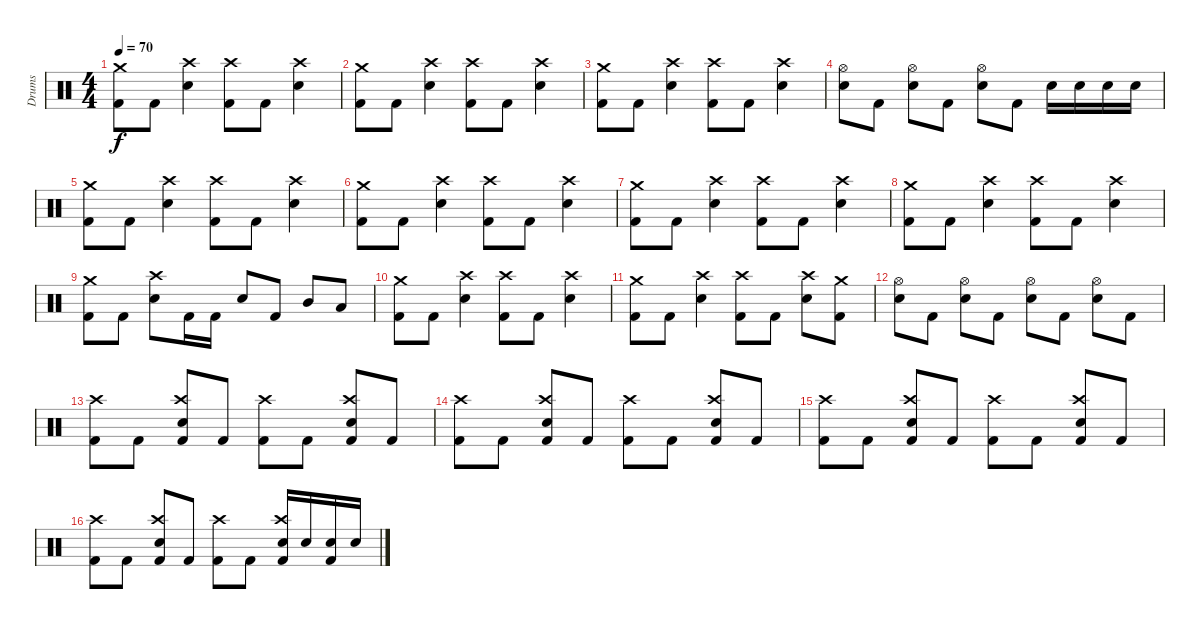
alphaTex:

\track ("Drums" "Drums") {instrument percussion}
\staff {score}
\articulation defaults
\ts (4 4)
\tempo 70
\clef neutral
\ks c
("Crash medium (hit)" "Kick (hit) 2").8{dy f} "Kick (hit) 2".8 ("Crash high (hit)" "Snare (hit) 2").4 ("Crash high (hit)" "Kick (hit) 2").8 "Kick (hit) 2".8 ("Crash high (hit)" "Snare (hit) 2").4 |
("Crash medium (hit)" "Kick (hit) 2").8 "Kick (hit) 2".8 ("Crash high (hit)" "Snare (hit) 2").4 ("Crash high (hit)" "Kick (hit) 2").8 "Kick (hit) 2".8 ("Crash high (hit)" "Snare (hit) 2").4 |
("Crash medium (hit)" "Kick (hit) 2").8 "Kick (hit) 2".8 ("Crash high (hit)" "Snare (hit) 2").4 ("Crash high (hit)" "Kick (hit) 2").8 "Kick (hit) 2".8 ("Crash high (hit)" "Snare (hit) 2").4 |
("Hi-Hat (open)" "Snare (hit) 2").8 "Kick (hit) 2".8 ("Hi-Hat (open)" "Snare (hit) 2").8 "Kick (hit) 2".8 ("Hi-Hat (open)" "Snare (hit) 2").8 "Kick (hit) 2".8 "Snare (hit) 2".16 "Snare (hit) 2".16 "Snare (hit) 2".16 "Snare (hit) 2".16 |
("Crash medium (hit)" "Kick (hit) 2").8 "Kick (hit) 2".8 ("Crash high (hit)" "Snare (hit) 2").4 ("Crash high (hit)" "Kick (hit) 2").8 "Kick (hit) 2".8 ("Crash high (hit)" "Snare (hit) 2").4 |
("Crash medium (hit)" "Kick (hit) 2").8 "Kick (hit) 2".8 ("Crash high (hit)" "Snare (hit) 2").4 ("Crash high (hit)" "Kick (hit) 2").8 "Kick (hit) 2".8 ("Crash high (hit)" "Snare (hit) 2").4 |
("Crash medium (hit)" "Kick (hit) 2").8 "Kick (hit) 2".8 ("Crash high (hit)" "Snare (hit) 2").4 ("Crash high (hit)" "Kick (hit) 2").8 "Kick (hit) 2".8 ("Crash high (hit)" "Snare (hit) 2").4 |
("Crash medium (hit)" "Kick (hit) 2").8 "Kick (hit) 2".8 ("Crash high (hit)" "Snare (hit) 2").4 ("Crash high (hit)" "Kick (hit) 2").8 "Kick (hit) 2".8 ("Crash high (hit)" "Snare (hit) 2").4 |
("Crash medium (hit)" "Kick (hit) 2").8 "Kick (hit) 2".8 ("Crash high (hit)" "Snare (hit) 2").8 "Kick (hit) 2".16 "Kick (hit) 2".16 "Snare (hit) 2".8 "Kick (hit) 2".8 "Mid Tom (hit)".8 "Low Tom (hit)".8 |
("Crash medium (hit)" "Kick (hit) 2").8 "Kick (hit) 2".8 ("Crash high (hit)" "Snare (hit) 2").4 ("Crash high (hit)" "Kick (hit) 2").8 "Kick (hit) 2".8 ("Crash high (hit)" "Snare (hit) 2").4 |
("Crash medium (hit)" "Kick (hit) 2").8 "Kick (hit) 2".8 ("Crash high (hit)" "Snare (hit) 2").4 ("Crash high (hit)" "Kick (hit) 2").8 "Kick (hit) 2".8 ("Crash high (hit)" "Snare (hit) 2").8 ("Crash medium (hit)" "Kick (hit) 2").8 |
("Hi-Hat (open)" "Snare (hit) 2").8 "Kick (hit) 2".8 ("Hi-Hat (open)" "Snare (hit) 2").8 "Kick (hit) 2".8 ("Hi-Hat (open)" "Snare (hit) 2").8 "Kick (hit) 2".8 ("Hi-Hat (open)" "Snare (hit) 2").8 "Kick (hit) 2".8 |
("Crash high (hit)" "Kick (hit) 2").8 "Kick (hit) 2".8 ("Crash high (hit)" "Snare (hit) 2" "Kick (hit) 2").8 "Kick (hit) 2".8 ("Crash high (hit)" "Kick (hit) 2").8 "Kick (hit) 2".8 ("Crash high (hit)" "Snare (hit) 2" "Kick (hit) 2").8 "Kick (hit) 2".8 |
("Crash high (hit)" "Kick (hit) 2").8 "Kick (hit) 2".8 ("Crash high (hit)" "Snare (hit) 2" "Kick (hit) 2").8 "Kick (hit) 2".8 ("Crash high (hit)" "Kick (hit) 2").8 "Kick (hit) 2".8 ("Crash high (hit)" "Snare (hit) 2" "Kick (hit) 2").8 "Kick (hit) 2".8 |
("Crash high (hit)" "Kick (hit) 2").8 "Kick (hit) 2".8 ("Crash high (hit)" "Snare (hit) 2" "Kick (hit) 2").8 "Kick (hit) 2".8 ("Crash high (hit)" "Kick (hit) 2").8 "Kick (hit) 2".8 ("Crash high (hit)" "Snare (hit) 2" "Kick (hit) 2").8 "Kick (hit) 2".8 |
("Crash high (hit)" "Kick (hit) 2").8 "Kick (hit) 2".8 ("Crash high (hit)" "Snare (hit) 2" "Kick (hit) 2").8 "Kick (hit) 2".8 ("Crash high (hit)" "Kick (hit) 2").8 "Kick (hit) 2".8 ("Crash high (hit)" "Snare (hit) 2" "Kick (hit) 2").16 "Snare (hit) 2".16 ("Snare (hit) 2" "Kick (hit) 2").16 "Snare (hit) 2".16
